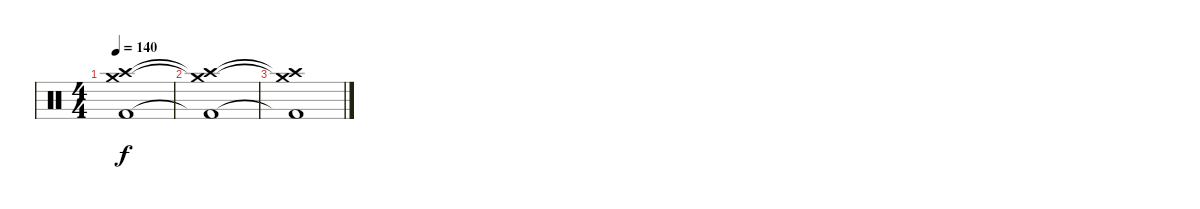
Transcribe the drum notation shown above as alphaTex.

\track "" {instrument percussion}
\staff {score}
\articulation defaults
\ts (4 4)
\tempo 140
\clef neutral
\ks c
("Crash medium (hit)"{t} "Crash high (hit)"{t} "Kick (hit) 2"{t}).1{dy f} |
("Crash medium (hit)"{t} "Crash high (hit)"{t} "Kick (hit) 2"{t}).1 |
("Crash medium (hit)"{t} "Crash high (hit)"{t} "Kick (hit) 2"{t}).1
